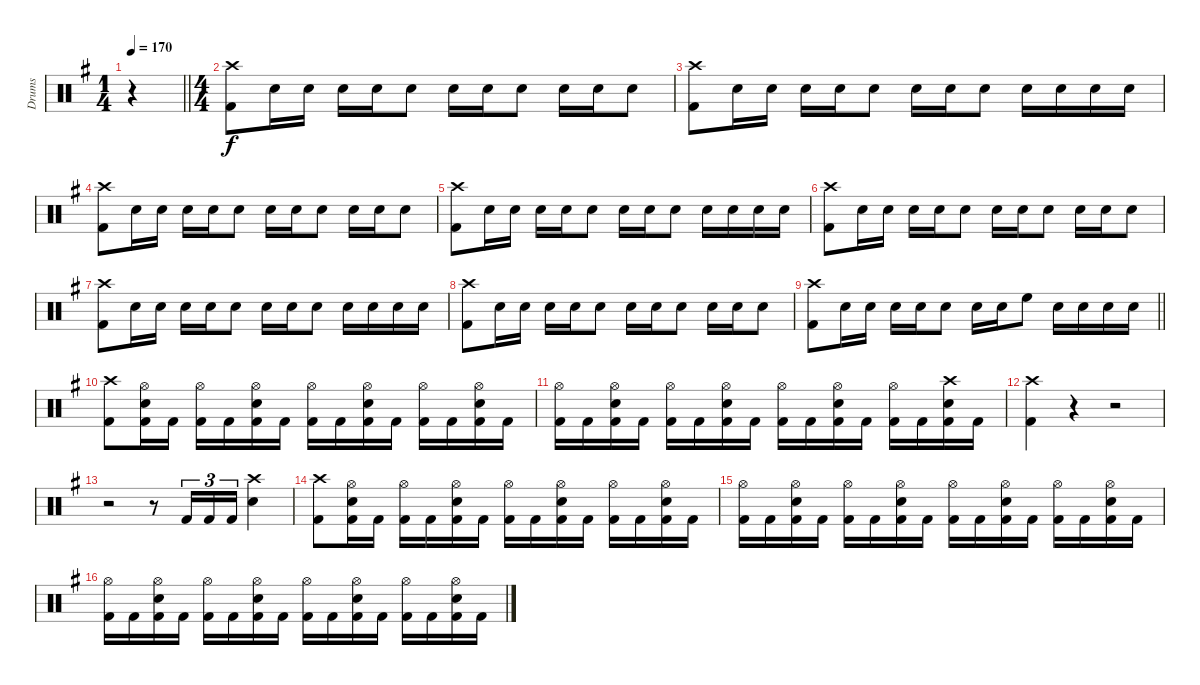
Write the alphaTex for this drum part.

\track ("Drums" "Drums") {instrument percussion}
\staff {score}
\articulation defaults
\ts (1 4)
\tempo 170
\clef neutral
\barLineRight lightlight
\ks g
r.4{dy f} |
\ts (4 4)
("Crash high (hit)" "Kick (hit) 2").8 "Snare (hit) 2".16 "Snare (hit) 2".16 "Snare (hit) 2".16 "Snare (hit) 2".16 "Snare (hit) 2".8 "Snare (hit) 2".16 "Snare (hit) 2".16 "Snare (hit) 2".8 "Snare (hit) 2".16 "Snare (hit) 2".16 "Snare (hit) 2".8 |
("Crash high (hit)" "Kick (hit) 2").8 "Snare (hit) 2".16 "Snare (hit) 2".16 "Snare (hit) 2".16 "Snare (hit) 2".16 "Snare (hit) 2".8 "Snare (hit) 2".16 "Snare (hit) 2".16 "Snare (hit) 2".8 "Snare (hit) 2".16 "Snare (hit) 2".16 "Snare (hit) 2".16 "Snare (hit) 2".16 |
("Crash high (hit)" "Kick (hit) 2").8 "Snare (hit) 2".16 "Snare (hit) 2".16 "Snare (hit) 2".16 "Snare (hit) 2".16 "Snare (hit) 2".8 "Snare (hit) 2".16 "Snare (hit) 2".16 "Snare (hit) 2".8 "Snare (hit) 2".16 "Snare (hit) 2".16 "Snare (hit) 2".8 |
("Crash high (hit)" "Kick (hit) 2").8 "Snare (hit) 2".16 "Snare (hit) 2".16 "Snare (hit) 2".16 "Snare (hit) 2".16 "Snare (hit) 2".8 "Snare (hit) 2".16 "Snare (hit) 2".16 "Snare (hit) 2".8 "Snare (hit) 2".16 "Snare (hit) 2".16 "Snare (hit) 2".16 "Snare (hit) 2".16 |
("Crash high (hit)" "Kick (hit) 2").8 "Snare (hit) 2".16 "Snare (hit) 2".16 "Snare (hit) 2".16 "Snare (hit) 2".16 "Snare (hit) 2".8 "Snare (hit) 2".16 "Snare (hit) 2".16 "Snare (hit) 2".8 "Snare (hit) 2".16 "Snare (hit) 2".16 "Snare (hit) 2".8 |
("Crash high (hit)" "Kick (hit) 2").8 "Snare (hit) 2".16 "Snare (hit) 2".16 "Snare (hit) 2".16 "Snare (hit) 2".16 "Snare (hit) 2".8 "Snare (hit) 2".16 "Snare (hit) 2".16 "Snare (hit) 2".8 "Snare (hit) 2".16 "Snare (hit) 2".16 "Snare (hit) 2".16 "Snare (hit) 2".16 |
("Crash high (hit)" "Kick (hit) 2").8 "Snare (hit) 2".16 "Snare (hit) 2".16 "Snare (hit) 2".16 "Snare (hit) 2".16 "Snare (hit) 2".8 "Snare (hit) 2".16 "Snare (hit) 2".16 "Snare (hit) 2".8 "Snare (hit) 2".16 "Snare (hit) 2".16 "Snare (hit) 2".8 |
\barLineRight lightlight
("Crash high (hit)" "Kick (hit) 2").8 "Snare (hit) 2".16 "Snare (hit) 2".16 "Snare (hit) 2".16 "Snare (hit) 2".16 "Snare (hit) 2".8 "Snare (hit) 2".16 "Snare (hit) 2".16 "High Floor Tom (hit)".8 "Snare (hit) 2".16 "Snare (hit) 2".16 "Snare (hit) 2".16 "Snare (hit) 2".16 |
("Crash high (hit)" "Kick (hit) 2").8 ("Hi-Hat (open)" "Snare (hit) 2" "Kick (hit) 2").16 "Kick (hit) 2".16 ("Hi-Hat (open)" "Kick (hit) 2").16 "Kick (hit) 2".16 ("Hi-Hat (open)" "Snare (hit) 2" "Kick (hit) 2").16 "Kick (hit) 2".16 ("Hi-Hat (open)" "Kick (hit) 2").16 "Kick (hit) 2".16 ("Hi-Hat (open)" "Snare (hit) 2" "Kick (hit) 2").16 "Kick (hit) 2".16 ("Hi-Hat (open)" "Kick (hit) 2").16 "Kick (hit) 2".16 ("Hi-Hat (open)" "Snare (hit) 2" "Kick (hit) 2").16 "Kick (hit) 2".16 |
("Hi-Hat (open)" "Kick (hit) 2").16 "Kick (hit) 2".16 ("Hi-Hat (open)" "Snare (hit) 2" "Kick (hit) 2").16 "Kick (hit) 2".16 ("Hi-Hat (open)" "Kick (hit) 2").16 "Kick (hit) 2".16 ("Hi-Hat (open)" "Snare (hit) 2" "Kick (hit) 2").16 "Kick (hit) 2".16 ("Hi-Hat (open)" "Kick (hit) 2").16 "Kick (hit) 2".16 ("Hi-Hat (open)" "Snare (hit) 2" "Kick (hit) 2").16 "Kick (hit) 2".16 ("Hi-Hat (open)" "Kick (hit) 2").16 "Kick (hit) 2".16 ("Crash high (hit)" "Snare (hit) 2" "Kick (hit) 2").16 "Kick (hit) 2".16 |
("Crash high (hit)" "Kick (hit) 2").4 r.4 r.2 |
r.2 r.8 "Kick (hit) 2".16{tu (3 2)} "Kick (hit) 2".16{tu (3 2)} "Kick (hit) 2".16{tu (3 2)} ("Crash high (hit)" "Snare (hit) 2").4 |
("Crash high (hit)" "Kick (hit) 2").8 ("Hi-Hat (open)" "Snare (hit) 2" "Kick (hit) 2").16 "Kick (hit) 2".16 ("Hi-Hat (open)" "Kick (hit) 2").16 "Kick (hit) 2".16 ("Hi-Hat (open)" "Snare (hit) 2" "Kick (hit) 2").16 "Kick (hit) 2".16 ("Hi-Hat (open)" "Kick (hit) 2").16 "Kick (hit) 2".16 ("Hi-Hat (open)" "Snare (hit) 2" "Kick (hit) 2").16 "Kick (hit) 2".16 ("Hi-Hat (open)" "Kick (hit) 2").16 "Kick (hit) 2".16 ("Hi-Hat (open)" "Snare (hit) 2" "Kick (hit) 2").16 "Kick (hit) 2".16 |
("Hi-Hat (open)" "Kick (hit) 2").16 "Kick (hit) 2".16 ("Hi-Hat (open)" "Snare (hit) 2" "Kick (hit) 2").16 "Kick (hit) 2".16 ("Hi-Hat (open)" "Kick (hit) 2").16 "Kick (hit) 2".16 ("Hi-Hat (open)" "Snare (hit) 2" "Kick (hit) 2").16 "Kick (hit) 2".16 ("Hi-Hat (open)" "Kick (hit) 2").16 "Kick (hit) 2".16 ("Hi-Hat (open)" "Snare (hit) 2" "Kick (hit) 2").16 "Kick (hit) 2".16 ("Hi-Hat (open)" "Kick (hit) 2").16 "Kick (hit) 2".16 ("Hi-Hat (open)" "Snare (hit) 2" "Kick (hit) 2").16 "Kick (hit) 2".16 |
("Hi-Hat (open)" "Kick (hit) 2").16 "Kick (hit) 2".16 ("Hi-Hat (open)" "Snare (hit) 2" "Kick (hit) 2").16 "Kick (hit) 2".16 ("Hi-Hat (open)" "Kick (hit) 2").16 "Kick (hit) 2".16 ("Hi-Hat (open)" "Snare (hit) 2" "Kick (hit) 2").16 "Kick (hit) 2".16 ("Hi-Hat (open)" "Kick (hit) 2").16 "Kick (hit) 2".16 ("Hi-Hat (open)" "Snare (hit) 2" "Kick (hit) 2").16 "Kick (hit) 2".16 ("Hi-Hat (open)" "Kick (hit) 2").16 "Kick (hit) 2".16 ("Hi-Hat (open)" "Snare (hit) 2" "Kick (hit) 2").16 "Kick (hit) 2".16
